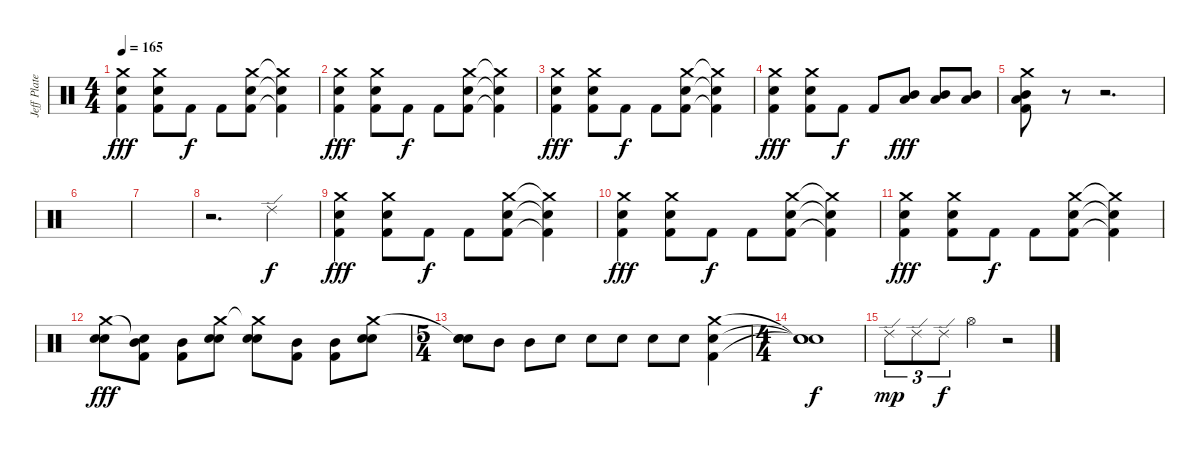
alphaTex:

\track ("Jeff Plate" "Jeff Plate") {instrument percussion}
\staff {score}
\articulation defaults
\ts (4 4)
\tempo 165
\clef neutral
\ks c
("Crash medium (hit)" "Electric Snare (hit)" "Kick (hit) 2").4{dy fff} ("Crash medium (hit)" "Electric Snare (hit)" "Kick (hit) 2").8 "Kick (hit) 2".8{dy f} "Kick (hit) 2".8 ("Crash medium (hit)" "Electric Snare (hit)" "Kick (hit) 2").8 ("Crash medium (hit)"{t} "Electric Snare (hit)"{t} "Kick (hit) 2"{t}).4 |
("Crash medium (hit)" "Electric Snare (hit)" "Kick (hit) 2").4{dy fff} ("Crash medium (hit)" "Electric Snare (hit)" "Kick (hit) 2").8 "Kick (hit) 2".8{dy f} "Kick (hit) 2".8 ("Crash medium (hit)" "Electric Snare (hit)" "Kick (hit) 2").8 ("Crash medium (hit)"{t} "Electric Snare (hit)"{t} "Kick (hit) 2"{t}).4 |
("Crash medium (hit)" "Electric Snare (hit)" "Kick (hit) 2").4{dy fff} ("Crash medium (hit)" "Electric Snare (hit)" "Kick (hit) 2").8 "Kick (hit) 2".8{dy f} "Kick (hit) 2".8 ("Crash medium (hit)" "Electric Snare (hit)" "Kick (hit) 2").8 ("Crash medium (hit)"{t} "Electric Snare (hit)"{t} "Kick (hit) 2"{t}).4 |
("Crash medium (hit)" "Electric Snare (hit)" "Kick (hit) 2").4{dy fff} ("Crash medium (hit)" "Electric Snare (hit)" "Kick (hit) 2").8 "Kick (hit) 2".8{dy f} "Kick (hit) 2".8 ("Mid Tom (hit)" "Low Tom (hit)").8{dy fff} ("Mid Tom (hit)" "Low Tom (hit)").8 ("Mid Tom (hit)" "Low Tom (hit)").8 |
("Crash medium (hit)" "Mid Tom (hit)" "Low Tom (hit)" "Kick (hit) 2").8 r.8 r.2{d} |
|
|
r.2{d} "Ride (edge) 2".4{dy f} |
("Crash medium (hit)" "Electric Snare (hit)" "Kick (hit) 2").4{dy fff} ("Crash medium (hit)" "Electric Snare (hit)" "Kick (hit) 2").8 "Kick (hit) 2".8{dy f} "Kick (hit) 2".8 ("Crash medium (hit)" "Electric Snare (hit)" "Kick (hit) 2").8 ("Crash medium (hit)"{t} "Electric Snare (hit)"{t} "Kick (hit) 2"{t}).4 |
("Crash medium (hit)" "Electric Snare (hit)" "Kick (hit) 2").4{dy fff} ("Crash medium (hit)" "Electric Snare (hit)" "Kick (hit) 2").8 "Kick (hit) 2".8{dy f} "Kick (hit) 2".8 ("Crash medium (hit)" "Electric Snare (hit)" "Kick (hit) 2").8 ("Crash medium (hit)"{t} "Electric Snare (hit)"{t} "Kick (hit) 2"{t}).4 |
("Crash medium (hit)" "Electric Snare (hit)" "Kick (hit) 2").4{dy fff} ("Crash medium (hit)" "Electric Snare (hit)" "Kick (hit) 2").8 "Kick (hit) 2".8{dy f} "Kick (hit) 2".8 ("Crash medium (hit)" "Electric Snare (hit)" "Kick (hit) 2").8 ("Crash medium (hit)"{t} "Electric Snare (hit)"{t} "Kick (hit) 2"{t}).4 |
("Crash medium (hit)" "Electric Snare (hit)" "Electric Snare (hit)").8{dy fff} ("Snare (hit)"{t} "Mid Tom (hit)" "Kick (hit) 2").8 ("Mid Tom (hit)" "Kick (hit) 2").8 ("Crash medium (hit)" "Electric Snare (hit)" "Electric Snare (hit)").8 ("Crash medium (hit)"{t} "Electric Snare (hit)" "Electric Snare (hit)").8 ("Mid Tom (hit)" "Kick (hit) 2").8 ("Mid Tom (hit)" "Kick (hit) 2").8 ("Crash medium (hit)" "Electric Snare (hit)" "Electric Snare (hit)").8 |
\ts (5 4)
("Snare (hit)"{t} "Electric Snare (hit)" "Electric Snare (hit)").8 "Mid Tom (hit)".8 "Mid Tom (hit)".8 "Electric Snare (hit)".8 "Electric Snare (hit)".8 "Electric Snare (hit)".8 "Electric Snare (hit)".8 "Electric Snare (hit)".8 ("Crash medium (hit)" "Electric Snare (hit)" "Kick (hit) 2").4 |
\ts (4 4)
("Snare (hit)"{t} "Snare (hit)"{t} "Snare (hit)"{t}).1{dy f} |
"Ride (edge) 2".8{tu (3 2) dy mp} "Ride (edge) 2".8{tu (3 2)} "Ride (edge) 2".8{tu (3 2) dy f} "Hi-Hat (open)".4 r.2
